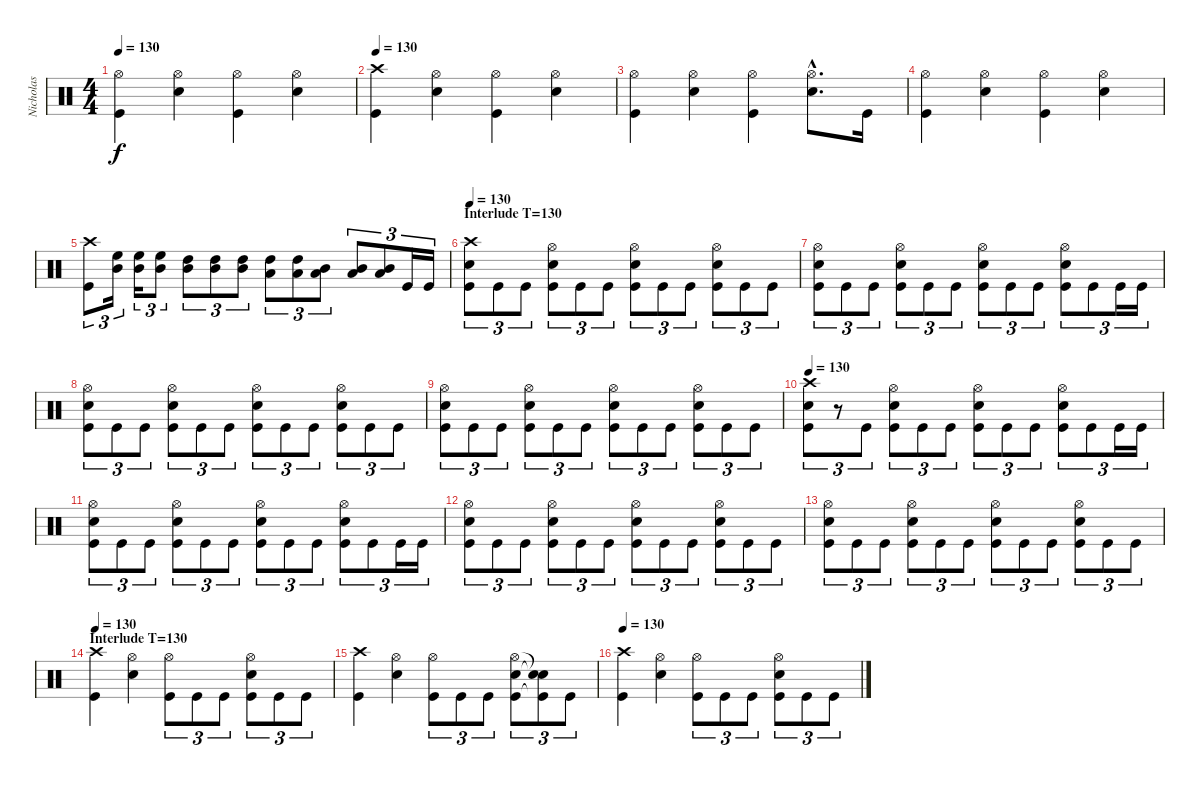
\track ("Nicholas" "Nicholas") {instrument percussion}
\staff {score}
\articulation defaults
\ts (4 4)
\tempo 130
\clef neutral
\ks c
("Hi-Hat (open)" "Kick (hit)").4{dy f} ("Hi-Hat (open)" "Electric Snare (hit)").4 ("Hi-Hat (open)" "Kick (hit)").4 ("Hi-Hat (open)" "Electric Snare (hit)").4 |
\tempo 130
("Crash high (hit)" "Kick (hit)").4 ("Hi-Hat (open)" "Electric Snare (hit)").4 ("Hi-Hat (open)" "Kick (hit)").4 ("Hi-Hat (open)" "Electric Snare (hit)").4 |
("Hi-Hat (open)" "Kick (hit)").4 ("Hi-Hat (open)" "Electric Snare (hit)").4 ("Hi-Hat (open)" "Kick (hit)").4 ("Hi-Hat (open)"{hac} "Electric Snare (hit)"{hac}).8{d} "Kick (hit)".16 |
("Hi-Hat (open)" "Kick (hit)").4 ("Hi-Hat (open)" "Electric Snare (hit)").4 ("Hi-Hat (open)" "Kick (hit)").4 ("Hi-Hat (open)" "Electric Snare (hit)").4 |
("Crash high (hit)" "Kick (hit)").8{tu (3 2)} ("High Floor Tom (hit)" "Mid Tom (hit)").16{tu (3 2) balance 13} ("High Floor Tom (hit)" "Mid Tom (hit)").16{tu (3 2)} ("High Floor Tom (hit)" "Mid Tom (hit)").8{tu (3 2)} ("High Tom (hit)" "Mid Tom (hit)").8{tu (3 2)} ("High Tom (hit)" "Mid Tom (hit)").8{tu (3 2)} ("High Tom (hit)" "Mid Tom (hit)").8{tu (3 2)} ("High Tom (hit)" "Low Tom (hit)").8{tu (3 2) balance 10} ("High Tom (hit)" "Low Tom (hit)").8{tu (3 2)} ("Mid Tom (hit)" "Low Tom (hit)").8{tu (3 2)} ("Mid Tom (hit)" "Low Tom (hit)").8{tu (3 2)} ("Mid Tom (hit)" "Low Tom (hit)").8{tu (3 2)} "Kick (hit)".16{tu (3 2) balance 8} "Kick (hit)".16{tu (3 2)} |
\section ("" "Interlude T=130")
\tempo 130
("Crash high (hit)" "Electric Snare (hit)" "Kick (hit)").8{tu (3 2)} "Kick (hit)".8{tu (3 2)} "Kick (hit)".8{tu (3 2)} ("Hi-Hat (open)" "Electric Snare (hit)" "Kick (hit)").8{tu (3 2)} "Kick (hit)".8{tu (3 2)} "Kick (hit)".8{tu (3 2)} ("Hi-Hat (open)" "Electric Snare (hit)" "Kick (hit)").8{tu (3 2)} "Kick (hit)".8{tu (3 2)} "Kick (hit)".8{tu (3 2)} ("Hi-Hat (open)" "Electric Snare (hit)" "Kick (hit)").8{tu (3 2)} "Kick (hit)".8{tu (3 2)} "Kick (hit)".8{tu (3 2)} |
("Hi-Hat (open)" "Electric Snare (hit)" "Kick (hit)").8{tu (3 2)} "Kick (hit)".8{tu (3 2)} "Kick (hit)".8{tu (3 2)} ("Hi-Hat (open)" "Electric Snare (hit)" "Kick (hit)").8{tu (3 2)} "Kick (hit)".8{tu (3 2)} "Kick (hit)".8{tu (3 2)} ("Hi-Hat (open)" "Electric Snare (hit)" "Kick (hit)").8{tu (3 2)} "Kick (hit)".8{tu (3 2)} "Kick (hit)".8{tu (3 2)} ("Hi-Hat (open)" "Electric Snare (hit)" "Kick (hit)").8{tu (3 2)} "Kick (hit)".8{tu (3 2)} "Kick (hit)".16{tu (3 2)} "Kick (hit)".16{tu (3 2)} |
("Hi-Hat (open)" "Electric Snare (hit)" "Kick (hit)").8{tu (3 2)} "Kick (hit)".8{tu (3 2)} "Kick (hit)".8{tu (3 2)} ("Hi-Hat (open)" "Electric Snare (hit)" "Kick (hit)").8{tu (3 2)} "Kick (hit)".8{tu (3 2)} "Kick (hit)".8{tu (3 2)} ("Hi-Hat (open)" "Electric Snare (hit)" "Kick (hit)").8{tu (3 2)} "Kick (hit)".8{tu (3 2)} "Kick (hit)".8{tu (3 2)} ("Hi-Hat (open)" "Electric Snare (hit)" "Kick (hit)").8{tu (3 2)} "Kick (hit)".8{tu (3 2)} "Kick (hit)".8{tu (3 2)} |
("Hi-Hat (open)" "Electric Snare (hit)" "Kick (hit)").8{tu (3 2)} "Kick (hit)".8{tu (3 2)} "Kick (hit)".8{tu (3 2)} ("Hi-Hat (open)" "Electric Snare (hit)" "Kick (hit)").8{tu (3 2)} "Kick (hit)".8{tu (3 2)} "Kick (hit)".8{tu (3 2)} ("Hi-Hat (open)" "Electric Snare (hit)" "Kick (hit)").8{tu (3 2)} "Kick (hit)".8{tu (3 2)} "Kick (hit)".8{tu (3 2)} ("Hi-Hat (open)" "Electric Snare (hit)" "Kick (hit)").8{tu (3 2)} "Kick (hit)".8{tu (3 2)} "Kick (hit)".8{tu (3 2)} |
\tempo 130
("Crash high (hit)" "Electric Snare (hit)" "Kick (hit)").8{tu (3 2)} r.8{tu (3 2)} "Kick (hit)".8{tu (3 2)} ("Hi-Hat (open)" "Electric Snare (hit)" "Kick (hit)").8{tu (3 2)} "Kick (hit)".8{tu (3 2)} "Kick (hit)".8{tu (3 2)} ("Hi-Hat (open)" "Electric Snare (hit)" "Kick (hit)").8{tu (3 2)} "Kick (hit)".8{tu (3 2)} "Kick (hit)".8{tu (3 2)} ("Hi-Hat (open)" "Electric Snare (hit)" "Kick (hit)").8{tu (3 2)} "Kick (hit)".8{tu (3 2)} "Kick (hit)".16{tu (3 2)} "Kick (hit)".16{tu (3 2)} |
("Hi-Hat (open)" "Electric Snare (hit)" "Kick (hit)").8{tu (3 2)} "Kick (hit)".8{tu (3 2)} "Kick (hit)".8{tu (3 2)} ("Hi-Hat (open)" "Electric Snare (hit)" "Kick (hit)").8{tu (3 2)} "Kick (hit)".8{tu (3 2)} "Kick (hit)".8{tu (3 2)} ("Hi-Hat (open)" "Electric Snare (hit)" "Kick (hit)").8{tu (3 2)} "Kick (hit)".8{tu (3 2)} "Kick (hit)".8{tu (3 2)} ("Hi-Hat (open)" "Electric Snare (hit)" "Kick (hit)").8{tu (3 2)} "Kick (hit)".8{tu (3 2)} "Kick (hit)".16{tu (3 2)} "Kick (hit)".16{tu (3 2)} |
("Hi-Hat (open)" "Electric Snare (hit)" "Kick (hit)").8{tu (3 2)} "Kick (hit)".8{tu (3 2)} "Kick (hit)".8{tu (3 2)} ("Hi-Hat (open)" "Electric Snare (hit)" "Kick (hit)").8{tu (3 2)} "Kick (hit)".8{tu (3 2)} "Kick (hit)".8{tu (3 2)} ("Hi-Hat (open)" "Electric Snare (hit)" "Kick (hit)").8{tu (3 2)} "Kick (hit)".8{tu (3 2)} "Kick (hit)".8{tu (3 2)} ("Hi-Hat (open)" "Electric Snare (hit)" "Kick (hit)").8{tu (3 2)} "Kick (hit)".8{tu (3 2)} "Kick (hit)".8{tu (3 2)} |
("Hi-Hat (open)" "Electric Snare (hit)" "Kick (hit)").8{tu (3 2)} "Kick (hit)".8{tu (3 2)} "Kick (hit)".8{tu (3 2)} ("Hi-Hat (open)" "Electric Snare (hit)" "Kick (hit)").8{tu (3 2)} "Kick (hit)".8{tu (3 2)} "Kick (hit)".8{tu (3 2)} ("Hi-Hat (open)" "Electric Snare (hit)" "Kick (hit)").8{tu (3 2)} "Kick (hit)".8{tu (3 2)} "Kick (hit)".8{tu (3 2)} ("Hi-Hat (open)" "Electric Snare (hit)" "Kick (hit)").8{tu (3 2)} "Kick (hit)".8{tu (3 2)} "Kick (hit)".8{tu (3 2)} |
\section ("" "Interlude T=130")
\tempo 130
("Crash high (hit)" "Kick (hit)").4 ("Hi-Hat (open)" "Electric Snare (hit)").4 ("Hi-Hat (open)" "Kick (hit)").8{tu (3 2)} "Kick (hit)".8{tu (3 2)} "Kick (hit)".8{tu (3 2)} ("Hi-Hat (open)" "Electric Snare (hit)" "Kick (hit)").8{tu (3 2)} "Kick (hit)".8{tu (3 2)} "Kick (hit)".8{tu (3 2)} |
("Crash high (hit)" "Kick (hit)").4 ("Hi-Hat (open)" "Electric Snare (hit)").4 ("Hi-Hat (open)" "Kick (hit)").8{tu (3 2)} "Kick (hit)".8{tu (3 2)} "Kick (hit)".8{tu (3 2)} ("Hi-Hat (open)" "Electric Snare (hit)" "Kick (hit)").8{tu (3 2)} ("Snare (hit)"{t} "Snare (hit)"{t} "Kick (hit)"{t}).8{tu (3 2)} "Kick (hit)".8{tu (3 2)} |
\tempo 130
("Crash high (hit)" "Kick (hit)").4 ("Hi-Hat (open)" "Electric Snare (hit)").4 ("Hi-Hat (open)" "Kick (hit)").8{tu (3 2)} "Kick (hit)".8{tu (3 2)} "Kick (hit)".8{tu (3 2)} ("Hi-Hat (open)" "Electric Snare (hit)" "Kick (hit)").8{tu (3 2)} "Kick (hit)".8{tu (3 2)} "Kick (hit)".8{tu (3 2)}
